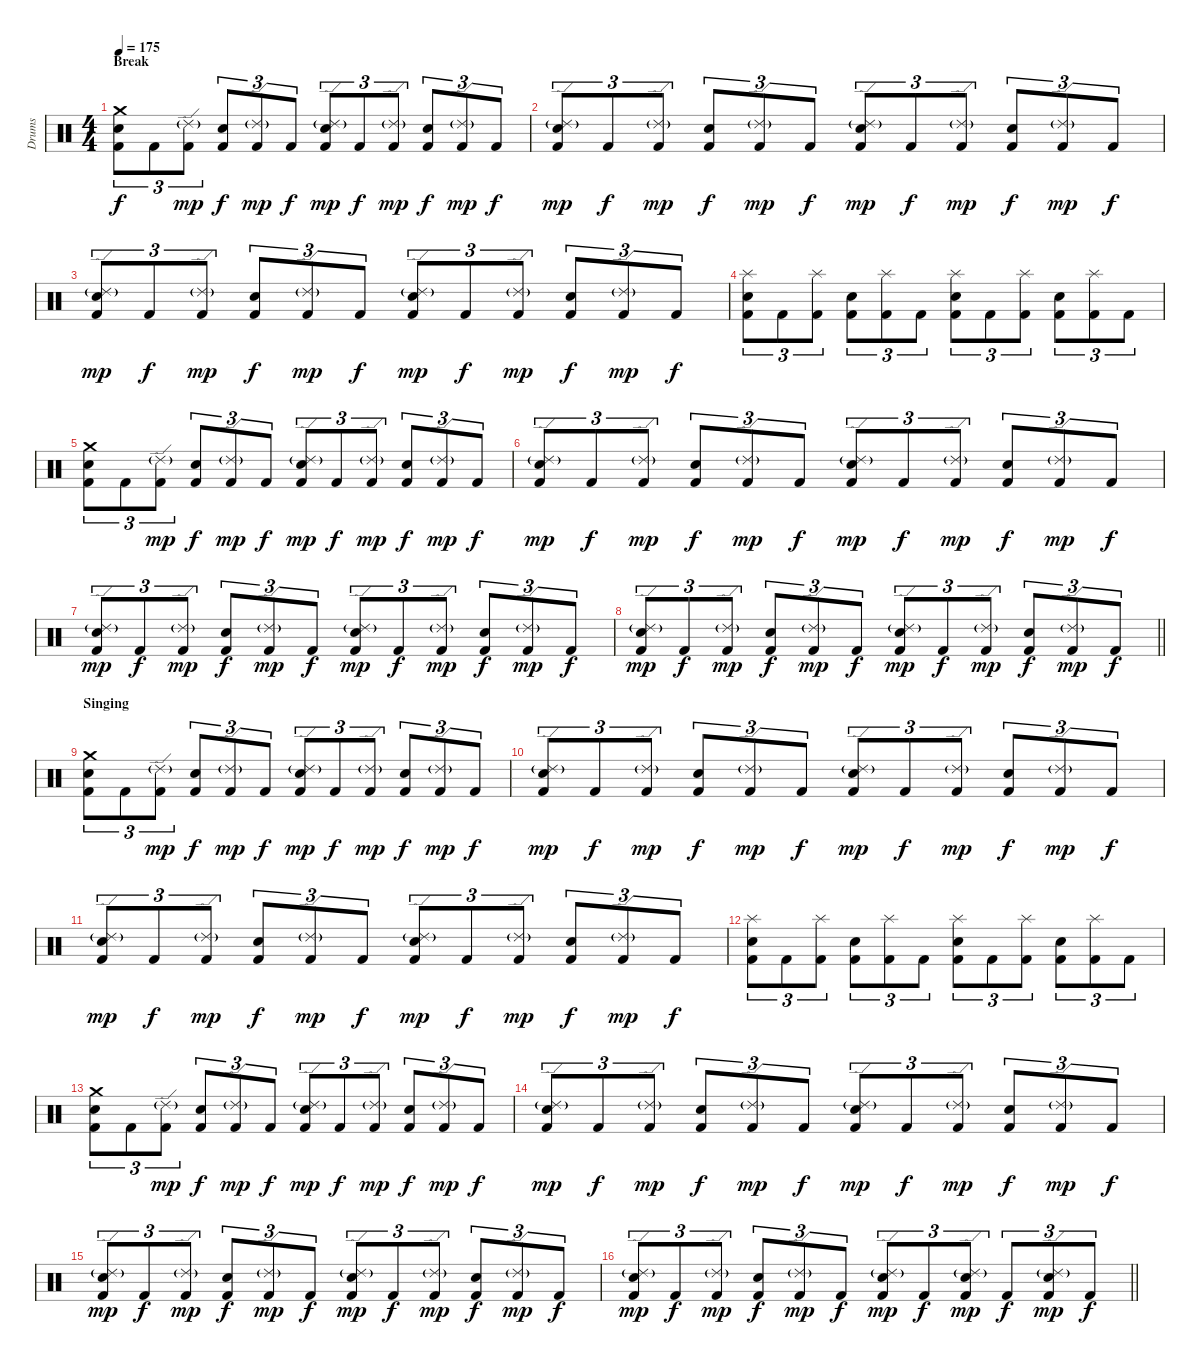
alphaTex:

\track ("Drums" "Drums") {instrument percussion}
\staff {score}
\articulation defaults
\ts (4 4)
\section ("" "Break")
\tempo 175
\clef neutral
\ks c
("Kick (hit) 2" "Snare (hit) 2" "Crash medium (hit)").8{tu (3 2) dy f} "Kick (hit) 2".8{tu (3 2)} ("Kick (hit) 2" "Ride (edge) 2"{g}).8{tu (3 2) dy mp} ("Kick (hit) 2" "Snare (hit) 2").8{tu (3 2) dy f} ("Kick (hit) 2" "Ride (edge) 2"{g}).8{tu (3 2) dy mp} "Kick (hit) 2".8{tu (3 2) dy f} ("Kick (hit) 2" "Snare (hit) 2" "Ride (edge) 2"{g}).8{tu (3 2) dy mp} "Kick (hit) 2".8{tu (3 2) dy f} ("Kick (hit) 2" "Ride (edge) 2"{g}).8{tu (3 2) dy mp} ("Kick (hit) 2" "Snare (hit) 2").8{tu (3 2) dy f} ("Kick (hit) 2" "Ride (edge) 2"{g}).8{tu (3 2) dy mp} "Kick (hit) 2".8{tu (3 2) dy f} |
("Kick (hit) 2" "Snare (hit) 2" "Ride (edge) 2"{g}).8{tu (3 2) dy mp} "Kick (hit) 2".8{tu (3 2) dy f} ("Kick (hit) 2" "Ride (edge) 2"{g}).8{tu (3 2) dy mp} ("Kick (hit) 2" "Snare (hit) 2").8{tu (3 2) dy f} ("Kick (hit) 2" "Ride (edge) 2"{g}).8{tu (3 2) dy mp} "Kick (hit) 2".8{tu (3 2) dy f} ("Kick (hit) 2" "Snare (hit) 2" "Ride (edge) 2"{g}).8{tu (3 2) dy mp} "Kick (hit) 2".8{tu (3 2) dy f} ("Kick (hit) 2" "Ride (edge) 2"{g}).8{tu (3 2) dy mp} ("Kick (hit) 2" "Snare (hit) 2").8{tu (3 2) dy f} ("Kick (hit) 2" "Ride (edge) 2"{g}).8{tu (3 2) dy mp} "Kick (hit) 2".8{tu (3 2) dy f} |
("Kick (hit) 2" "Snare (hit) 2" "Ride (edge) 2"{g}).8{tu (3 2) dy mp} "Kick (hit) 2".8{tu (3 2) dy f} ("Kick (hit) 2" "Ride (edge) 2"{g}).8{tu (3 2) dy mp} ("Kick (hit) 2" "Snare (hit) 2").8{tu (3 2) dy f} ("Kick (hit) 2" "Ride (edge) 2"{g}).8{tu (3 2) dy mp} "Kick (hit) 2".8{tu (3 2) dy f} ("Kick (hit) 2" "Snare (hit) 2" "Ride (edge) 2"{g}).8{tu (3 2) dy mp} "Kick (hit) 2".8{tu (3 2) dy f} ("Kick (hit) 2" "Ride (edge) 2"{g}).8{tu (3 2) dy mp} ("Kick (hit) 2" "Snare (hit) 2").8{tu (3 2) dy f} ("Kick (hit) 2" "Ride (edge) 2"{g}).8{tu (3 2) dy mp} "Kick (hit) 2".8{tu (3 2) dy f} |
("Kick (hit) 2" "Snare (hit) 2" "Splash (hit)").8{tu (3 2)} "Kick (hit) 2".8{tu (3 2)} ("Kick (hit) 2" "Splash (hit)").8{tu (3 2)} ("Kick (hit) 2" "Snare (hit) 2").8{tu (3 2)} ("Kick (hit) 2" "Splash (hit)").8{tu (3 2)} "Kick (hit) 2".8{tu (3 2)} ("Kick (hit) 2" "Snare (hit) 2" "Splash (hit)").8{tu (3 2)} "Kick (hit) 2".8{tu (3 2)} ("Kick (hit) 2" "Splash (hit)").8{tu (3 2)} ("Kick (hit) 2" "Snare (hit) 2").8{tu (3 2)} ("Kick (hit) 2" "Splash (hit)").8{tu (3 2)} "Kick (hit) 2".8{tu (3 2)} |
("Kick (hit) 2" "Snare (hit) 2" "Crash medium (hit)").8{tu (3 2)} "Kick (hit) 2".8{tu (3 2)} ("Kick (hit) 2" "Ride (edge) 2"{g}).8{tu (3 2) dy mp} ("Kick (hit) 2" "Snare (hit) 2").8{tu (3 2) dy f} ("Kick (hit) 2" "Ride (edge) 2"{g}).8{tu (3 2) dy mp} "Kick (hit) 2".8{tu (3 2) dy f} ("Kick (hit) 2" "Snare (hit) 2" "Ride (edge) 2"{g}).8{tu (3 2) dy mp} "Kick (hit) 2".8{tu (3 2) dy f} ("Kick (hit) 2" "Ride (edge) 2"{g}).8{tu (3 2) dy mp} ("Kick (hit) 2" "Snare (hit) 2").8{tu (3 2) dy f} ("Kick (hit) 2" "Ride (edge) 2"{g}).8{tu (3 2) dy mp} "Kick (hit) 2".8{tu (3 2) dy f} |
("Kick (hit) 2" "Snare (hit) 2" "Ride (edge) 2"{g}).8{tu (3 2) dy mp} "Kick (hit) 2".8{tu (3 2) dy f} ("Kick (hit) 2" "Ride (edge) 2"{g}).8{tu (3 2) dy mp} ("Kick (hit) 2" "Snare (hit) 2").8{tu (3 2) dy f} ("Kick (hit) 2" "Ride (edge) 2"{g}).8{tu (3 2) dy mp} "Kick (hit) 2".8{tu (3 2) dy f} ("Kick (hit) 2" "Snare (hit) 2" "Ride (edge) 2"{g}).8{tu (3 2) dy mp} "Kick (hit) 2".8{tu (3 2) dy f} ("Kick (hit) 2" "Ride (edge) 2"{g}).8{tu (3 2) dy mp} ("Kick (hit) 2" "Snare (hit) 2").8{tu (3 2) dy f} ("Kick (hit) 2" "Ride (edge) 2"{g}).8{tu (3 2) dy mp} "Kick (hit) 2".8{tu (3 2) dy f} |
("Kick (hit) 2" "Snare (hit) 2" "Ride (edge) 2"{g}).8{tu (3 2) dy mp} "Kick (hit) 2".8{tu (3 2) dy f} ("Kick (hit) 2" "Ride (edge) 2"{g}).8{tu (3 2) dy mp} ("Kick (hit) 2" "Snare (hit) 2").8{tu (3 2) dy f} ("Kick (hit) 2" "Ride (edge) 2"{g}).8{tu (3 2) dy mp} "Kick (hit) 2".8{tu (3 2) dy f} ("Kick (hit) 2" "Snare (hit) 2" "Ride (edge) 2"{g}).8{tu (3 2) dy mp} "Kick (hit) 2".8{tu (3 2) dy f} ("Kick (hit) 2" "Ride (edge) 2"{g}).8{tu (3 2) dy mp} ("Kick (hit) 2" "Snare (hit) 2").8{tu (3 2) dy f} ("Kick (hit) 2" "Ride (edge) 2"{g}).8{tu (3 2) dy mp} "Kick (hit) 2".8{tu (3 2) dy f} |
\barLineRight lightlight
("Kick (hit) 2" "Snare (hit) 2" "Ride (edge) 2"{g}).8{tu (3 2) dy mp} "Kick (hit) 2".8{tu (3 2) dy f} ("Kick (hit) 2" "Ride (edge) 2"{g}).8{tu (3 2) dy mp} ("Kick (hit) 2" "Snare (hit) 2").8{tu (3 2) dy f} ("Kick (hit) 2" "Ride (edge) 2"{g}).8{tu (3 2) dy mp} "Kick (hit) 2".8{tu (3 2) dy f} ("Kick (hit) 2" "Snare (hit) 2" "Ride (edge) 2"{g}).8{tu (3 2) dy mp} "Kick (hit) 2".8{tu (3 2) dy f} ("Kick (hit) 2" "Ride (edge) 2"{g}).8{tu (3 2) dy mp} ("Kick (hit) 2" "Snare (hit) 2").8{tu (3 2) dy f} ("Kick (hit) 2" "Ride (edge) 2"{g}).8{tu (3 2) dy mp} "Kick (hit) 2".8{tu (3 2) dy f} |
\section ("" "Singing")
("Kick (hit) 2" "Snare (hit) 2" "Crash medium (hit)").8{tu (3 2)} "Kick (hit) 2".8{tu (3 2)} ("Kick (hit) 2" "Ride (edge) 2"{g}).8{tu (3 2) dy mp} ("Kick (hit) 2" "Snare (hit) 2").8{tu (3 2) dy f} ("Kick (hit) 2" "Ride (edge) 2"{g}).8{tu (3 2) dy mp} "Kick (hit) 2".8{tu (3 2) dy f} ("Kick (hit) 2" "Snare (hit) 2" "Ride (edge) 2"{g}).8{tu (3 2) dy mp} "Kick (hit) 2".8{tu (3 2) dy f} ("Kick (hit) 2" "Ride (edge) 2"{g}).8{tu (3 2) dy mp} ("Kick (hit) 2" "Snare (hit) 2").8{tu (3 2) dy f} ("Kick (hit) 2" "Ride (edge) 2"{g}).8{tu (3 2) dy mp} "Kick (hit) 2".8{tu (3 2) dy f} |
("Kick (hit) 2" "Snare (hit) 2" "Ride (edge) 2"{g}).8{tu (3 2) dy mp} "Kick (hit) 2".8{tu (3 2) dy f} ("Kick (hit) 2" "Ride (edge) 2"{g}).8{tu (3 2) dy mp} ("Kick (hit) 2" "Snare (hit) 2").8{tu (3 2) dy f} ("Kick (hit) 2" "Ride (edge) 2"{g}).8{tu (3 2) dy mp} "Kick (hit) 2".8{tu (3 2) dy f} ("Kick (hit) 2" "Snare (hit) 2" "Ride (edge) 2"{g}).8{tu (3 2) dy mp} "Kick (hit) 2".8{tu (3 2) dy f} ("Kick (hit) 2" "Ride (edge) 2"{g}).8{tu (3 2) dy mp} ("Kick (hit) 2" "Snare (hit) 2").8{tu (3 2) dy f} ("Kick (hit) 2" "Ride (edge) 2"{g}).8{tu (3 2) dy mp} "Kick (hit) 2".8{tu (3 2) dy f} |
("Kick (hit) 2" "Snare (hit) 2" "Ride (edge) 2"{g}).8{tu (3 2) dy mp} "Kick (hit) 2".8{tu (3 2) dy f} ("Kick (hit) 2" "Ride (edge) 2"{g}).8{tu (3 2) dy mp} ("Kick (hit) 2" "Snare (hit) 2").8{tu (3 2) dy f} ("Kick (hit) 2" "Ride (edge) 2"{g}).8{tu (3 2) dy mp} "Kick (hit) 2".8{tu (3 2) dy f} ("Kick (hit) 2" "Snare (hit) 2" "Ride (edge) 2"{g}).8{tu (3 2) dy mp} "Kick (hit) 2".8{tu (3 2) dy f} ("Kick (hit) 2" "Ride (edge) 2"{g}).8{tu (3 2) dy mp} ("Kick (hit) 2" "Snare (hit) 2").8{tu (3 2) dy f} ("Kick (hit) 2" "Ride (edge) 2"{g}).8{tu (3 2) dy mp} "Kick (hit) 2".8{tu (3 2) dy f} |
("Kick (hit) 2" "Snare (hit) 2" "Splash (hit)").8{tu (3 2)} "Kick (hit) 2".8{tu (3 2)} ("Kick (hit) 2" "Splash (hit)").8{tu (3 2)} ("Kick (hit) 2" "Snare (hit) 2").8{tu (3 2)} ("Kick (hit) 2" "Splash (hit)").8{tu (3 2)} "Kick (hit) 2".8{tu (3 2)} ("Kick (hit) 2" "Snare (hit) 2" "Splash (hit)").8{tu (3 2)} "Kick (hit) 2".8{tu (3 2)} ("Kick (hit) 2" "Splash (hit)").8{tu (3 2)} ("Kick (hit) 2" "Snare (hit) 2").8{tu (3 2)} ("Kick (hit) 2" "Splash (hit)").8{tu (3 2)} "Kick (hit) 2".8{tu (3 2)} |
("Kick (hit) 2" "Snare (hit) 2" "Crash medium (hit)").8{tu (3 2)} "Kick (hit) 2".8{tu (3 2)} ("Kick (hit) 2" "Ride (edge) 2"{g}).8{tu (3 2) dy mp} ("Kick (hit) 2" "Snare (hit) 2").8{tu (3 2) dy f} ("Kick (hit) 2" "Ride (edge) 2"{g}).8{tu (3 2) dy mp} "Kick (hit) 2".8{tu (3 2) dy f} ("Kick (hit) 2" "Snare (hit) 2" "Ride (edge) 2"{g}).8{tu (3 2) dy mp} "Kick (hit) 2".8{tu (3 2) dy f} ("Kick (hit) 2" "Ride (edge) 2"{g}).8{tu (3 2) dy mp} ("Kick (hit) 2" "Snare (hit) 2").8{tu (3 2) dy f} ("Kick (hit) 2" "Ride (edge) 2"{g}).8{tu (3 2) dy mp} "Kick (hit) 2".8{tu (3 2) dy f} |
("Kick (hit) 2" "Snare (hit) 2" "Ride (edge) 2"{g}).8{tu (3 2) dy mp} "Kick (hit) 2".8{tu (3 2) dy f} ("Kick (hit) 2" "Ride (edge) 2"{g}).8{tu (3 2) dy mp} ("Kick (hit) 2" "Snare (hit) 2").8{tu (3 2) dy f} ("Kick (hit) 2" "Ride (edge) 2"{g}).8{tu (3 2) dy mp} "Kick (hit) 2".8{tu (3 2) dy f} ("Kick (hit) 2" "Snare (hit) 2" "Ride (edge) 2"{g}).8{tu (3 2) dy mp} "Kick (hit) 2".8{tu (3 2) dy f} ("Kick (hit) 2" "Ride (edge) 2"{g}).8{tu (3 2) dy mp} ("Kick (hit) 2" "Snare (hit) 2").8{tu (3 2) dy f} ("Kick (hit) 2" "Ride (edge) 2"{g}).8{tu (3 2) dy mp} "Kick (hit) 2".8{tu (3 2) dy f} |
("Kick (hit) 2" "Snare (hit) 2" "Ride (edge) 2"{g}).8{tu (3 2) dy mp} "Kick (hit) 2".8{tu (3 2) dy f} ("Kick (hit) 2" "Ride (edge) 2"{g}).8{tu (3 2) dy mp} ("Kick (hit) 2" "Snare (hit) 2").8{tu (3 2) dy f} ("Kick (hit) 2" "Ride (edge) 2"{g}).8{tu (3 2) dy mp} "Kick (hit) 2".8{tu (3 2) dy f} ("Kick (hit) 2" "Snare (hit) 2" "Ride (edge) 2"{g}).8{tu (3 2) dy mp} "Kick (hit) 2".8{tu (3 2) dy f} ("Kick (hit) 2" "Ride (edge) 2"{g}).8{tu (3 2) dy mp} ("Kick (hit) 2" "Snare (hit) 2").8{tu (3 2) dy f} ("Kick (hit) 2" "Ride (edge) 2"{g}).8{tu (3 2) dy mp} "Kick (hit) 2".8{tu (3 2) dy f} |
\barLineRight lightlight
("Kick (hit) 2" "Snare (hit) 2" "Ride (edge) 2"{g}).8{tu (3 2) dy mp} "Kick (hit) 2".8{tu (3 2) dy f} ("Kick (hit) 2" "Ride (edge) 2"{g}).8{tu (3 2) dy mp} ("Kick (hit) 2" "Snare (hit) 2").8{tu (3 2) dy f} ("Kick (hit) 2" "Ride (edge) 2"{g}).8{tu (3 2) dy mp} "Kick (hit) 2".8{tu (3 2) dy f} ("Kick (hit) 2" "Snare (hit) 2" "Ride (edge) 2"{g}).8{tu (3 2) dy mp} "Kick (hit) 2".8{tu (3 2) dy f} ("Kick (hit) 2" "Snare (hit) 2" "Ride (edge) 2"{g}).8{tu (3 2) dy mp} "Kick (hit) 2".8{tu (3 2) dy f} ("Kick (hit) 2" "Snare (hit) 2" "Ride (edge) 2"{g}).8{tu (3 2) dy mp} "Kick (hit) 2".8{tu (3 2) dy f}
